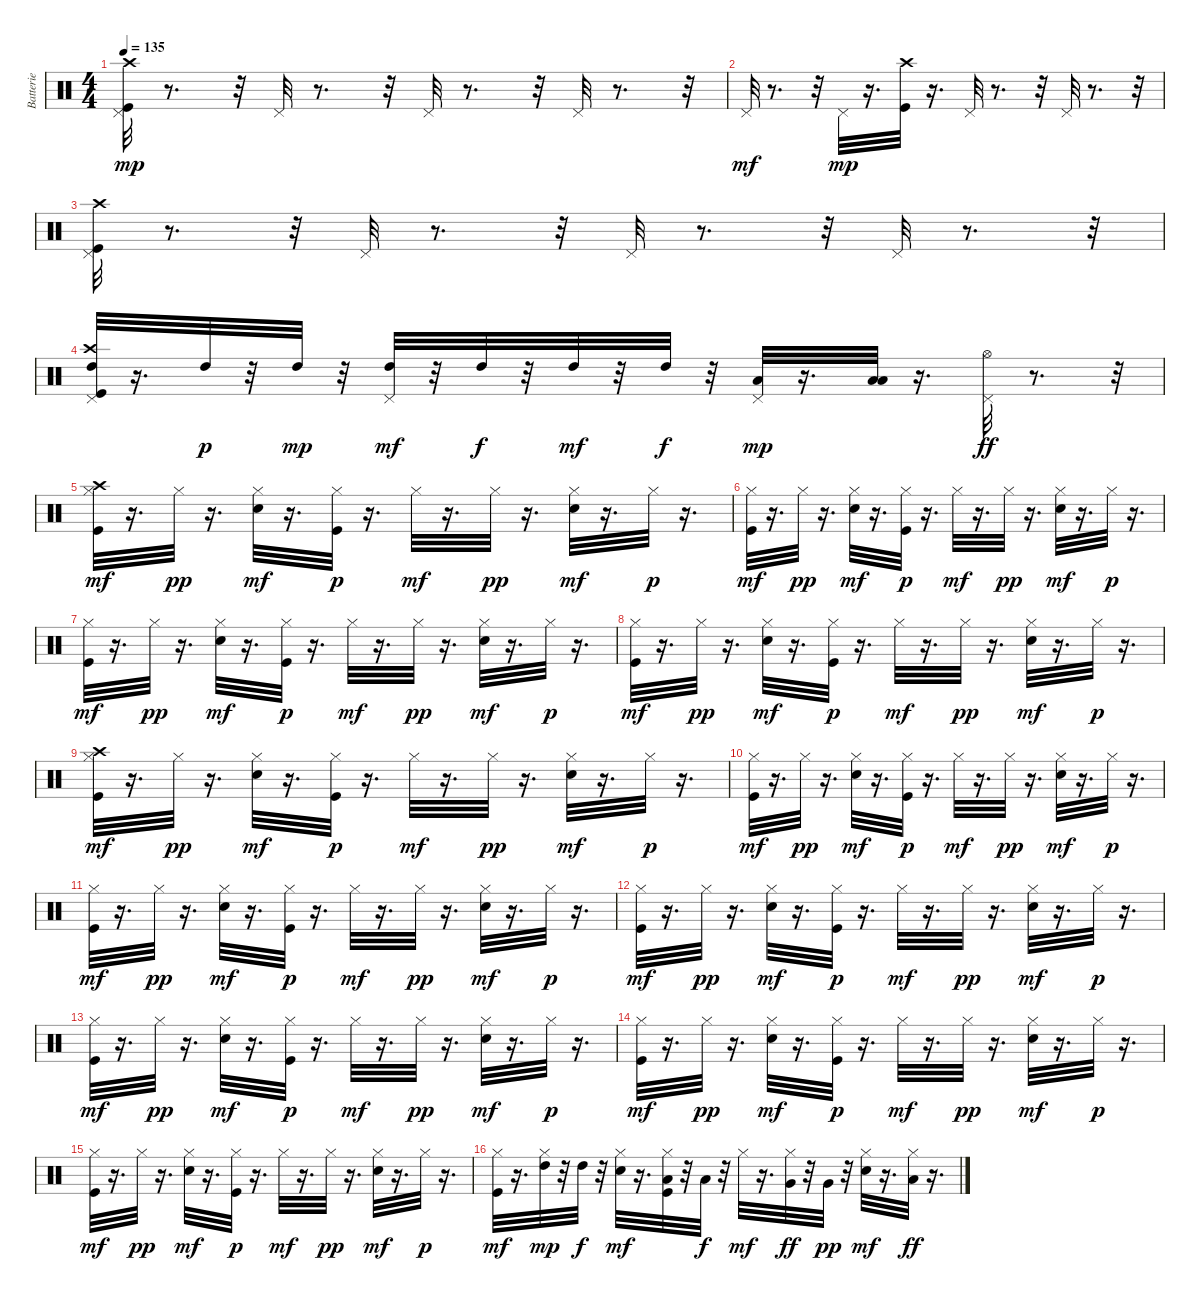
\track ("Batterie" "Batterie") {instrument percussion}
\staff {score}
\articulation defaults
\ts (4 4)
\tempo 135
\clef neutral
\ks c
("Kick (hit)" "Pedal Hi-Hat (hit)" "Crash high (hit)").32{dy mp} r.8{d} r.32 "Pedal Hi-Hat (hit)".32 r.8{d} r.32 "Pedal Hi-Hat (hit)".32 r.8{d} r.32 "Pedal Hi-Hat (hit)".32 r.8{d} r.32 |
"Pedal Hi-Hat (hit)".32{dy mf} r.8{d} r.32 "Pedal Hi-Hat (hit)".32{dy mp} r.16{d} ("Kick (hit)" "Crash high (hit)").32 r.16{d} "Pedal Hi-Hat (hit)".32 r.8{d} r.32 "Pedal Hi-Hat (hit)".32 r.8{d} r.32 |
("Kick (hit)" "Pedal Hi-Hat (hit)" "Crash high (hit)").32 r.8{d} r.32 "Pedal Hi-Hat (hit)".32 r.8{d} r.32 "Pedal Hi-Hat (hit)".32 r.8{d} r.32 "Pedal Hi-Hat (hit)".32 r.8{d} r.32 |
("Kick (hit)" "Pedal Hi-Hat (hit)" "High Tom (hit)" "Crash high (hit)").32 r.16{d} "High Tom (hit)".32{dy p} r.32 "High Tom (hit)".32{dy mp} r.32 ("Pedal Hi-Hat (hit)" "High Tom (hit)").32{dy mf} r.32 "High Tom (hit)".32{dy f} r.32 "High Tom (hit)".32{dy mf} r.32 "High Tom (hit)".32{dy f} r.32 ("Pedal Hi-Hat (hit)" "Low Tom (hit)").32{dy mp} r.16{d} ("Low Floor Tom (hit)" "Low Tom (hit)").32 r.16{d} ("Pedal Hi-Hat (hit)" "Hi-Hat (open)").32{dy ff} r.8{d} r.32 |
("Kick (hit)" "Hi-Hat (closed)" "Crash high (hit)").32{dy mf} r.16{d} "Hi-Hat (closed)".32{dy pp} r.16{d} ("Electric Snare (hit)" "Hi-Hat (closed)").32{dy mf} r.16{d} ("Kick (hit)" "Hi-Hat (closed)").32{dy p} r.16{d} "Hi-Hat (closed)".32{dy mf} r.16{d} "Hi-Hat (closed)".32{dy pp} r.16{d} ("Electric Snare (hit)" "Hi-Hat (closed)").32{dy mf} r.16{d} "Hi-Hat (closed)".32{dy p} r.16{d} |
("Kick (hit)" "Hi-Hat (closed)").32{dy mf} r.16{d} "Hi-Hat (closed)".32{dy pp} r.16{d} ("Electric Snare (hit)" "Hi-Hat (closed)").32{dy mf} r.16{d} ("Kick (hit)" "Hi-Hat (closed)").32{dy p} r.16{d} "Hi-Hat (closed)".32{dy mf} r.16{d} "Hi-Hat (closed)".32{dy pp} r.16{d} ("Electric Snare (hit)" "Hi-Hat (closed)").32{dy mf} r.16{d} "Hi-Hat (closed)".32{dy p} r.16{d} |
("Kick (hit)" "Hi-Hat (closed)").32{dy mf} r.16{d} "Hi-Hat (closed)".32{dy pp} r.16{d} ("Electric Snare (hit)" "Hi-Hat (closed)").32{dy mf} r.16{d} ("Kick (hit)" "Hi-Hat (closed)").32{dy p} r.16{d} "Hi-Hat (closed)".32{dy mf} r.16{d} "Hi-Hat (closed)".32{dy pp} r.16{d} ("Electric Snare (hit)" "Hi-Hat (closed)").32{dy mf} r.16{d} "Hi-Hat (closed)".32{dy p} r.16{d} |
("Kick (hit)" "Hi-Hat (closed)").32{dy mf} r.16{d} "Hi-Hat (closed)".32{dy pp} r.16{d} ("Electric Snare (hit)" "Hi-Hat (closed)").32{dy mf} r.16{d} ("Kick (hit)" "Hi-Hat (closed)").32{dy p} r.16{d} "Hi-Hat (closed)".32{dy mf} r.16{d} "Hi-Hat (closed)".32{dy pp} r.16{d} ("Electric Snare (hit)" "Hi-Hat (closed)").32{dy mf} r.16{d} "Hi-Hat (closed)".32{dy p} r.16{d} |
("Kick (hit)" "Hi-Hat (closed)" "Crash high (hit)").32{dy mf} r.16{d} "Hi-Hat (closed)".32{dy pp} r.16{d} ("Electric Snare (hit)" "Hi-Hat (closed)").32{dy mf} r.16{d} ("Kick (hit)" "Hi-Hat (closed)").32{dy p} r.16{d} "Hi-Hat (closed)".32{dy mf} r.16{d} "Hi-Hat (closed)".32{dy pp} r.16{d} ("Electric Snare (hit)" "Hi-Hat (closed)").32{dy mf} r.16{d} "Hi-Hat (closed)".32{dy p} r.16{d} |
("Kick (hit)" "Hi-Hat (closed)").32{dy mf} r.16{d} "Hi-Hat (closed)".32{dy pp} r.16{d} ("Electric Snare (hit)" "Hi-Hat (closed)").32{dy mf} r.16{d} ("Kick (hit)" "Hi-Hat (closed)").32{dy p} r.16{d} "Hi-Hat (closed)".32{dy mf} r.16{d} "Hi-Hat (closed)".32{dy pp} r.16{d} ("Electric Snare (hit)" "Hi-Hat (closed)").32{dy mf} r.16{d} "Hi-Hat (closed)".32{dy p} r.16{d} |
("Kick (hit)" "Hi-Hat (closed)").32{dy mf} r.16{d} "Hi-Hat (closed)".32{dy pp} r.16{d} ("Electric Snare (hit)" "Hi-Hat (closed)").32{dy mf} r.16{d} ("Kick (hit)" "Hi-Hat (closed)").32{dy p} r.16{d} "Hi-Hat (closed)".32{dy mf} r.16{d} "Hi-Hat (closed)".32{dy pp} r.16{d} ("Electric Snare (hit)" "Hi-Hat (closed)").32{dy mf} r.16{d} "Hi-Hat (closed)".32{dy p} r.16{d} |
("Kick (hit)" "Hi-Hat (closed)").32{dy mf} r.16{d} "Hi-Hat (closed)".32{dy pp} r.16{d} ("Electric Snare (hit)" "Hi-Hat (closed)").32{dy mf} r.16{d} ("Kick (hit)" "Hi-Hat (closed)").32{dy p} r.16{d} "Hi-Hat (closed)".32{dy mf} r.16{d} "Hi-Hat (closed)".32{dy pp} r.16{d} ("Electric Snare (hit)" "Hi-Hat (closed)").32{dy mf} r.16{d} "Hi-Hat (closed)".32{dy p} r.16{d} |
("Kick (hit)" "Hi-Hat (closed)").32{dy mf} r.16{d} "Hi-Hat (closed)".32{dy pp} r.16{d} ("Electric Snare (hit)" "Hi-Hat (closed)").32{dy mf} r.16{d} ("Kick (hit)" "Hi-Hat (closed)").32{dy p} r.16{d} "Hi-Hat (closed)".32{dy mf} r.16{d} "Hi-Hat (closed)".32{dy pp} r.16{d} ("Electric Snare (hit)" "Hi-Hat (closed)").32{dy mf} r.16{d} "Hi-Hat (closed)".32{dy p} r.16{d} |
("Kick (hit)" "Hi-Hat (closed)").32{dy mf} r.16{d} "Hi-Hat (closed)".32{dy pp} r.16{d} ("Electric Snare (hit)" "Hi-Hat (closed)").32{dy mf} r.16{d} ("Kick (hit)" "Hi-Hat (closed)").32{dy p} r.16{d} "Hi-Hat (closed)".32{dy mf} r.16{d} "Hi-Hat (closed)".32{dy pp} r.16{d} ("Electric Snare (hit)" "Hi-Hat (closed)").32{dy mf} r.16{d} "Hi-Hat (closed)".32{dy p} r.16{d} |
("Kick (hit)" "Hi-Hat (closed)").32{dy mf} r.16{d} "Hi-Hat (closed)".32{dy pp} r.16{d} ("Electric Snare (hit)" "Hi-Hat (closed)").32{dy mf} r.16{d} ("Kick (hit)" "Hi-Hat (closed)").32{dy p} r.16{d} "Hi-Hat (closed)".32{dy mf} r.16{d} "Hi-Hat (closed)".32{dy pp} r.16{d} ("Electric Snare (hit)" "Hi-Hat (closed)").32{dy mf} r.16{d} "Hi-Hat (closed)".32{dy p} r.16{d} |
("Kick (hit)" "Hi-Hat (closed)").32{dy mf} r.16{d} ("Hi-Hat (closed)" "High Tom (hit)").32{dy mp} r.32 "High Tom (hit)".32{dy f} r.32 ("Electric Snare (hit)" "Hi-Hat (closed)").32{dy mf} r.16{d} ("Kick (hit)" "Hi-Hat (closed)" "Low Tom (hit)").32 r.32 "Low Tom (hit)".32{dy f} r.32 "Hi-Hat (closed)".32{dy mf} r.16{d} ("Hi-Hat (closed)" "Very Low Tom (hit)").32{dy ff} r.32 "Very Low Tom (hit)".32{dy pp} r.32 ("Electric Snare (hit)" "Hi-Hat (closed)").32{dy mf} r.16{d} ("Hi-Hat (closed)" "Low Floor Tom (hit)").32{dy ff} r.16{d}
